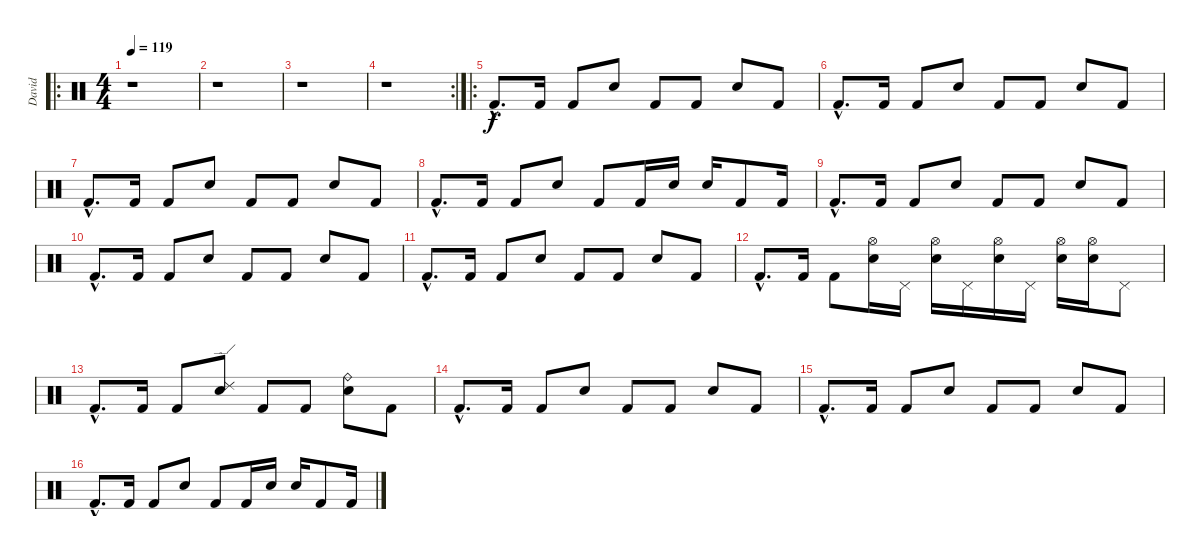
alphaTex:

\track ("David" "David") {instrument percussion}
\staff {score}
\articulation defaults
\ro
\ts (4 4)
\tempo 119
\clef neutral
\ks c
r.1{dy f} |
r.1 |
r.1 |
\rc 2
r.1 |
\ro "Kick (hit) 2"{hac}.8{d} "Kick (hit) 2".16 "Kick (hit) 2".8 "Snare (hit) 2".8 "Kick (hit) 2".8 "Kick (hit) 2".8 "Snare (hit) 2".8 "Kick (hit) 2".8
|
"Kick (hit) 2"{hac}.8{d} "Kick (hit) 2".16 "Kick (hit) 2".8 "Snare (hit) 2".8 "Kick (hit) 2".8 "Kick (hit) 2".8 "Snare (hit) 2".8 "Kick (hit) 2".8 |
"Kick (hit) 2"{hac}.8{d} "Kick (hit) 2".16 "Kick (hit) 2".8 "Snare (hit) 2".8 "Kick (hit) 2".8 "Kick (hit) 2".8 "Snare (hit) 2".8 "Kick (hit) 2".8 |
"Kick (hit) 2"{hac}.8{d} "Kick (hit) 2".16 "Kick (hit) 2".8 "Snare (hit) 2".8 "Kick (hit) 2".8 "Kick (hit) 2".16 "Snare (hit) 2".16 "Snare (hit) 2".16 "Kick (hit) 2".8 "Kick (hit) 2".16 |
"Kick (hit) 2"{hac}.8{d} "Kick (hit) 2".16 "Kick (hit) 2".8 "Snare (hit) 2".8 "Kick (hit) 2".8 "Kick (hit) 2".8 "Snare (hit) 2".8 "Kick (hit) 2".8 |
"Kick (hit) 2"{hac}.8{d} "Kick (hit) 2".16 "Kick (hit) 2".8 "Snare (hit) 2".8 "Kick (hit) 2".8 "Kick (hit) 2".8 "Snare (hit) 2".8 "Kick (hit) 2".8 |
"Kick (hit) 2"{hac}.8{d} "Kick (hit) 2".16 "Kick (hit) 2".8 "Snare (hit) 2".8 "Kick (hit) 2".8 "Kick (hit) 2".8 "Snare (hit) 2".8 "Kick (hit) 2".8 |
"Kick (hit) 2"{hac}.8{d} "Kick (hit) 2".16 "Kick (hit) 2".8 ("Hi-Hat (open)" "Snare (hit) 2").16 "Pedal Hi-Hat (hit)".16 ("Hi-Hat (open)" "Snare (hit) 2").16 "Pedal Hi-Hat (hit)".16 ("Hi-Hat (open)" "Snare (hit) 2").16 "Pedal Hi-Hat (hit)".16 ("Hi-Hat (open)" "Snare (hit) 2").16 ("Hi-Hat (open)" "Snare (hit) 2").16 "Pedal Hi-Hat (hit)".8 |
"Kick (hit) 2"{hac}.8{d} "Kick (hit) 2".16 "Kick (hit) 2".8 ("Ride (edge) 2" "Snare (hit) 2").8 "Kick (hit) 2".8 "Kick (hit) 2".8 ("Ride (bell)" "Snare (hit) 2").8 "Kick (hit) 2".8 |
"Kick (hit) 2"{hac}.8{d} "Kick (hit) 2".16 "Kick (hit) 2".8 "Snare (hit) 2".8 "Kick (hit) 2".8 "Kick (hit) 2".8 "Snare (hit) 2".8 "Kick (hit) 2".8 |
"Kick (hit) 2"{hac}.8{d} "Kick (hit) 2".16 "Kick (hit) 2".8 "Snare (hit) 2".8 "Kick (hit) 2".8 "Kick (hit) 2".8 "Snare (hit) 2".8 "Kick (hit) 2".8 |
"Kick (hit) 2"{hac}.8{d} "Kick (hit) 2".16 "Kick (hit) 2".8 "Snare (hit) 2".8 "Kick (hit) 2".8 "Kick (hit) 2".16 "Snare (hit) 2".16 "Snare (hit) 2".16 "Kick (hit) 2".8 "Kick (hit) 2".16
